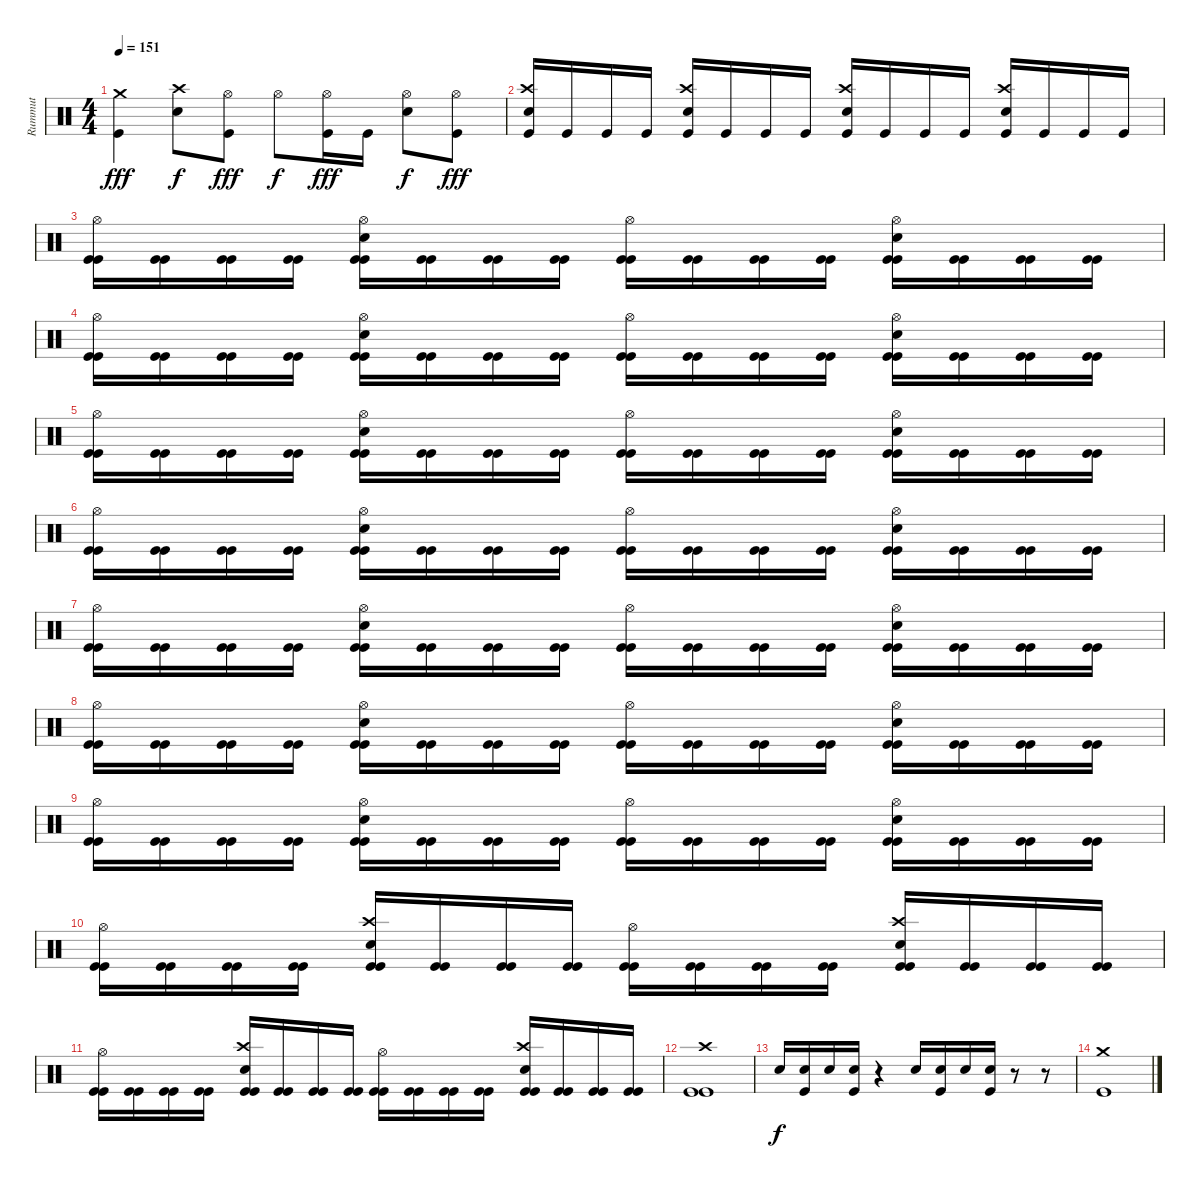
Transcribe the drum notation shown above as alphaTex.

\track ("Rummut" "Rummut") {instrument percussion}
\staff {score}
\articulation defaults
\ts (4 4)
\tempo 151
\clef neutral
\ks c
("Crash medium (hit)" "Kick (hit)").4{dy fff} ("Crash high (hit)" "Snare (hit) 2").8{dy f} ("Hi-Hat (open)" "Kick (hit)").8{dy fff} "Hi-Hat (open)".8{dy f} ("Hi-Hat (open)" "Kick (hit)").16{dy fff} "Kick (hit)".16 ("Hi-Hat (open)" "Snare (hit) 2").8{dy f} ("Hi-Hat (open)" "Kick (hit)").8{dy fff} |
("Snare (hit) 2" "Crash high (hit)" "Kick (hit)").16 "Kick (hit)".16 "Kick (hit)".16 "Kick (hit)".16 ("Snare (hit) 2" "Crash high (hit)" "Kick (hit)").16 "Kick (hit)".16 "Kick (hit)".16 "Kick (hit)".16 ("Snare (hit) 2" "Crash high (hit)" "Kick (hit)").16 "Kick (hit)".16 "Kick (hit)".16 "Kick (hit)".16 ("Snare (hit) 2" "Crash high (hit)" "Kick (hit)").16 "Kick (hit)".16 "Kick (hit)".16 "Kick (hit)".16 |
("Hi-Hat (open)" "Kick (hit)" "Kick (hit)").16 ("Kick (hit)" "Kick (hit)").16 ("Kick (hit)" "Kick (hit)").16 ("Kick (hit)" "Kick (hit)").16 ("Hi-Hat (open)" "Snare (hit) 2" "Kick (hit)" "Kick (hit)").16 ("Kick (hit)" "Kick (hit)").16 ("Kick (hit)" "Kick (hit)").16 ("Kick (hit)" "Kick (hit)").16 ("Hi-Hat (open)" "Kick (hit)" "Kick (hit)").16 ("Kick (hit)" "Kick (hit)").16 ("Kick (hit)" "Kick (hit)").16 ("Kick (hit)" "Kick (hit)").16 ("Hi-Hat (open)" "Snare (hit) 2" "Kick (hit)" "Kick (hit)").16 ("Kick (hit)" "Kick (hit)").16 ("Kick (hit)" "Kick (hit)").16 ("Kick (hit)" "Kick (hit)").16 |
("Hi-Hat (open)" "Kick (hit)" "Kick (hit)").16 ("Kick (hit)" "Kick (hit)").16 ("Kick (hit)" "Kick (hit)").16 ("Kick (hit)" "Kick (hit)").16 ("Hi-Hat (open)" "Snare (hit) 2" "Kick (hit)" "Kick (hit)").16 ("Kick (hit)" "Kick (hit)").16 ("Kick (hit)" "Kick (hit)").16 ("Kick (hit)" "Kick (hit)").16 ("Hi-Hat (open)" "Kick (hit)" "Kick (hit)").16 ("Kick (hit)" "Kick (hit)").16 ("Kick (hit)" "Kick (hit)").16 ("Kick (hit)" "Kick (hit)").16 ("Hi-Hat (open)" "Snare (hit) 2" "Kick (hit)" "Kick (hit)").16 ("Kick (hit)" "Kick (hit)").16 ("Kick (hit)" "Kick (hit)").16 ("Kick (hit)" "Kick (hit)").16 |
("Hi-Hat (open)" "Kick (hit)" "Kick (hit)").16 ("Kick (hit)" "Kick (hit)").16 ("Kick (hit)" "Kick (hit)").16 ("Kick (hit)" "Kick (hit)").16 ("Hi-Hat (open)" "Snare (hit) 2" "Kick (hit)" "Kick (hit)").16 ("Kick (hit)" "Kick (hit)").16 ("Kick (hit)" "Kick (hit)").16 ("Kick (hit)" "Kick (hit)").16 ("Hi-Hat (open)" "Kick (hit)" "Kick (hit)").16 ("Kick (hit)" "Kick (hit)").16 ("Kick (hit)" "Kick (hit)").16 ("Kick (hit)" "Kick (hit)").16 ("Hi-Hat (open)" "Snare (hit) 2" "Kick (hit)" "Kick (hit)").16 ("Kick (hit)" "Kick (hit)").16 ("Kick (hit)" "Kick (hit)").16 ("Kick (hit)" "Kick (hit)").16 |
("Hi-Hat (open)" "Kick (hit)" "Kick (hit)").16 ("Kick (hit)" "Kick (hit)").16 ("Kick (hit)" "Kick (hit)").16 ("Kick (hit)" "Kick (hit)").16 ("Hi-Hat (open)" "Snare (hit) 2" "Kick (hit)" "Kick (hit)").16 ("Kick (hit)" "Kick (hit)").16 ("Kick (hit)" "Kick (hit)").16 ("Kick (hit)" "Kick (hit)").16 ("Hi-Hat (open)" "Kick (hit)" "Kick (hit)").16 ("Kick (hit)" "Kick (hit)").16 ("Kick (hit)" "Kick (hit)").16 ("Kick (hit)" "Kick (hit)").16 ("Hi-Hat (open)" "Snare (hit) 2" "Kick (hit)" "Kick (hit)").16 ("Kick (hit)" "Kick (hit)").16 ("Kick (hit)" "Kick (hit)").16 ("Kick (hit)" "Kick (hit)").16 |
("Hi-Hat (open)" "Kick (hit)" "Kick (hit)").16 ("Kick (hit)" "Kick (hit)").16 ("Kick (hit)" "Kick (hit)").16 ("Kick (hit)" "Kick (hit)").16 ("Hi-Hat (open)" "Snare (hit) 2" "Kick (hit)" "Kick (hit)").16 ("Kick (hit)" "Kick (hit)").16 ("Kick (hit)" "Kick (hit)").16 ("Kick (hit)" "Kick (hit)").16 ("Hi-Hat (open)" "Kick (hit)" "Kick (hit)").16 ("Kick (hit)" "Kick (hit)").16 ("Kick (hit)" "Kick (hit)").16 ("Kick (hit)" "Kick (hit)").16 ("Hi-Hat (open)" "Snare (hit) 2" "Kick (hit)" "Kick (hit)").16 ("Kick (hit)" "Kick (hit)").16 ("Kick (hit)" "Kick (hit)").16 ("Kick (hit)" "Kick (hit)").16 |
("Hi-Hat (open)" "Kick (hit)" "Kick (hit)").16 ("Kick (hit)" "Kick (hit)").16 ("Kick (hit)" "Kick (hit)").16 ("Kick (hit)" "Kick (hit)").16 ("Hi-Hat (open)" "Snare (hit) 2" "Kick (hit)" "Kick (hit)").16 ("Kick (hit)" "Kick (hit)").16 ("Kick (hit)" "Kick (hit)").16 ("Kick (hit)" "Kick (hit)").16 ("Hi-Hat (open)" "Kick (hit)" "Kick (hit)").16 ("Kick (hit)" "Kick (hit)").16 ("Kick (hit)" "Kick (hit)").16 ("Kick (hit)" "Kick (hit)").16 ("Hi-Hat (open)" "Snare (hit) 2" "Kick (hit)" "Kick (hit)").16 ("Kick (hit)" "Kick (hit)").16 ("Kick (hit)" "Kick (hit)").16 ("Kick (hit)" "Kick (hit)").16 |
("Hi-Hat (open)" "Kick (hit)" "Kick (hit)").16 ("Kick (hit)" "Kick (hit)").16 ("Kick (hit)" "Kick (hit)").16 ("Kick (hit)" "Kick (hit)").16 ("Hi-Hat (open)" "Snare (hit) 2" "Kick (hit)" "Kick (hit)").16 ("Kick (hit)" "Kick (hit)").16 ("Kick (hit)" "Kick (hit)").16 ("Kick (hit)" "Kick (hit)").16 ("Hi-Hat (open)" "Kick (hit)" "Kick (hit)").16 ("Kick (hit)" "Kick (hit)").16 ("Kick (hit)" "Kick (hit)").16 ("Kick (hit)" "Kick (hit)").16 ("Hi-Hat (open)" "Snare (hit) 2" "Kick (hit)" "Kick (hit)").16 ("Kick (hit)" "Kick (hit)").16 ("Kick (hit)" "Kick (hit)").16 ("Kick (hit)" "Kick (hit)").16 |
("Hi-Hat (open)" "Kick (hit)" "Kick (hit)").16 ("Kick (hit)" "Kick (hit)").16 ("Kick (hit)" "Kick (hit)").16 ("Kick (hit)" "Kick (hit)").16 ("Crash high (hit)" "Snare (hit) 2" "Kick (hit)" "Kick (hit)").16 ("Kick (hit)" "Kick (hit)").16 ("Kick (hit)" "Kick (hit)").16 ("Kick (hit)" "Kick (hit)").16 ("Hi-Hat (open)" "Kick (hit)" "Kick (hit)").16 ("Kick (hit)" "Kick (hit)").16 ("Kick (hit)" "Kick (hit)").16 ("Kick (hit)" "Kick (hit)").16 ("Crash high (hit)" "Snare (hit) 2" "Kick (hit)" "Kick (hit)").16 ("Kick (hit)" "Kick (hit)").16 ("Kick (hit)" "Kick (hit)").16 ("Kick (hit)" "Kick (hit)").16 |
("Hi-Hat (open)" "Kick (hit)" "Kick (hit)").16 ("Kick (hit)" "Kick (hit)").16 ("Kick (hit)" "Kick (hit)").16 ("Kick (hit)" "Kick (hit)").16 ("Crash high (hit)" "Snare (hit) 2" "Kick (hit)" "Kick (hit)").16 ("Kick (hit)" "Kick (hit)").16 ("Kick (hit)" "Kick (hit)").16 ("Kick (hit)" "Kick (hit)").16 ("Hi-Hat (open)" "Kick (hit)" "Kick (hit)").16 ("Kick (hit)" "Kick (hit)").16 ("Kick (hit)" "Kick (hit)").16 ("Kick (hit)" "Kick (hit)").16 ("Crash high (hit)" "Snare (hit) 2" "Kick (hit)" "Kick (hit)").16 ("Kick (hit)" "Kick (hit)").16 ("Kick (hit)" "Kick (hit)").16 ("Kick (hit)" "Kick (hit)").16 |
("Crash high (hit)" "Kick (hit)" "Kick (hit)").1 |
"Snare (hit) 2".16{dy f} ("Snare (hit) 2" "Kick (hit)").16 "Snare (hit) 2".16 ("Snare (hit) 2" "Kick (hit)").16 r.4 "Snare (hit) 2".16 ("Snare (hit) 2" "Kick (hit)").16 "Snare (hit) 2".16 ("Snare (hit) 2" "Kick (hit)").16 r.8 r.8 |
("Crash medium (hit)" "Kick (hit)").1
